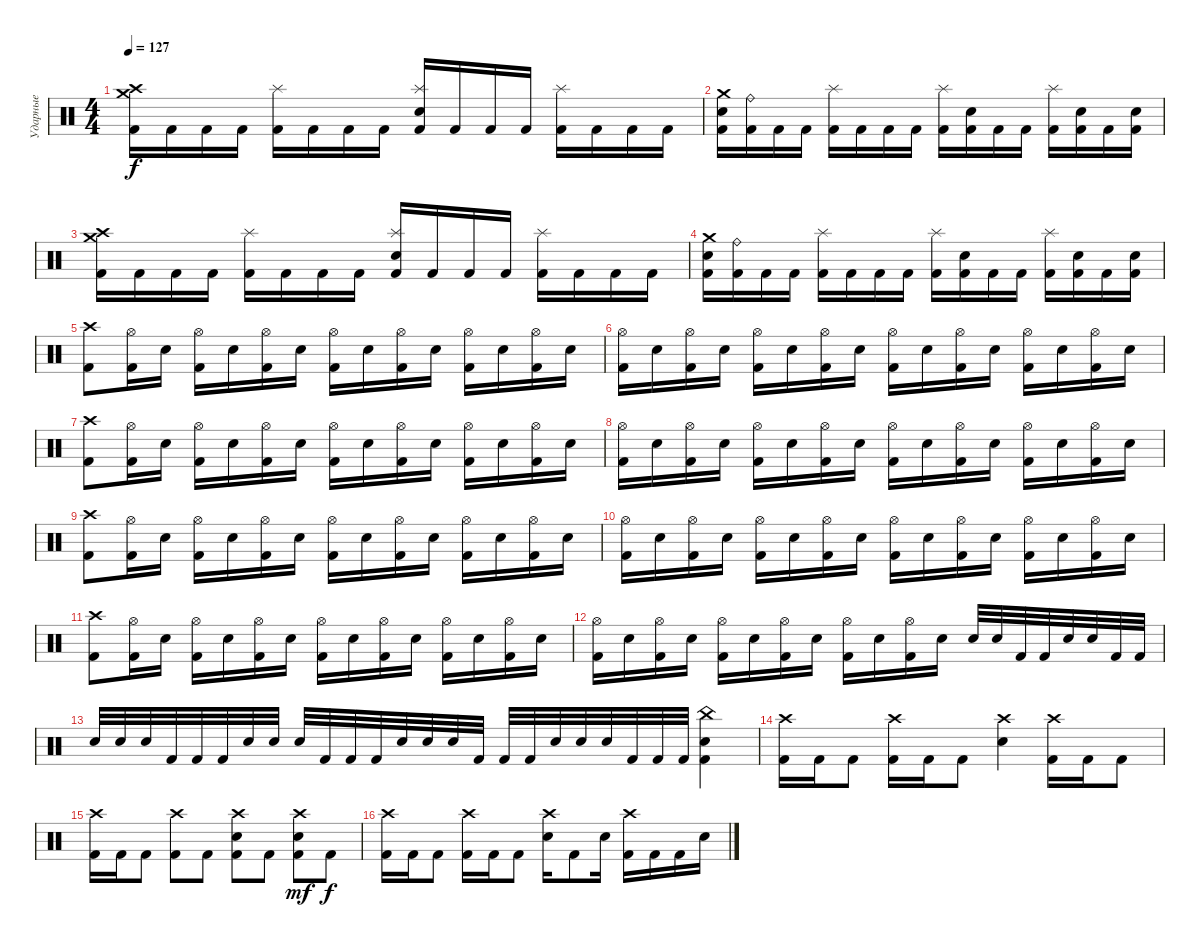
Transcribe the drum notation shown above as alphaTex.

\track ("Ударные" "Ударные") {instrument percussion bank 1}
\staff {score}
\articulation defaults
\ts (4 4)
\tempo 127
\clef neutral
\ks c
("Crash medium (hit)" "Crash high (hit)" "Kick (hit) 2").16{dy f} "Kick (hit) 2".16 "Kick (hit) 2".16 "Kick (hit) 2".16 ("Splash (hit)" "Kick (hit) 2").16 "Kick (hit) 2".16 "Kick (hit) 2".16 "Kick (hit) 2".16 ("Splash (hit)" "Electric Snare (hit)" "Kick (hit) 2").16 "Kick (hit) 2".16 "Kick (hit) 2".16 "Kick (hit) 2".16 ("Splash (hit)" "Kick (hit) 2").16 "Kick (hit) 2".16 "Kick (hit) 2".16 "Kick (hit) 2".16 |
("Crash medium (hit)" "Electric Snare (hit)" "Kick (hit) 2").16 ("Ride (bell)" "Kick (hit) 2").16 "Kick (hit) 2".16 "Kick (hit) 2".16 ("Splash (hit)" "Kick (hit) 2").16 "Kick (hit) 2".16 "Kick (hit) 2".16 "Kick (hit) 2".16 ("Splash (hit)" "Kick (hit) 2").16 ("Electric Snare (hit)" "Kick (hit) 2").16 "Kick (hit) 2".16 "Kick (hit) 2".16 ("Splash (hit)" "Kick (hit) 2").16 ("Electric Snare (hit)" "Kick (hit) 2").16 "Kick (hit) 2".16 ("Electric Snare (hit)" "Kick (hit) 2").16 |
("Crash medium (hit)" "Crash high (hit)" "Kick (hit) 2").16 "Kick (hit) 2".16 "Kick (hit) 2".16 "Kick (hit) 2".16 ("Splash (hit)" "Kick (hit) 2").16 "Kick (hit) 2".16 "Kick (hit) 2".16 "Kick (hit) 2".16 ("Splash (hit)" "Electric Snare (hit)" "Kick (hit) 2").16 "Kick (hit) 2".16 "Kick (hit) 2".16 "Kick (hit) 2".16 ("Splash (hit)" "Kick (hit) 2").16 "Kick (hit) 2".16 "Kick (hit) 2".16 "Kick (hit) 2".16 |
("Crash medium (hit)" "Electric Snare (hit)" "Kick (hit) 2").16 ("Ride (bell)" "Kick (hit) 2").16 "Kick (hit) 2".16 "Kick (hit) 2".16 ("Splash (hit)" "Kick (hit) 2").16 "Kick (hit) 2".16 "Kick (hit) 2".16 "Kick (hit) 2".16 ("Splash (hit)" "Kick (hit) 2").16 ("Electric Snare (hit)" "Kick (hit) 2").16 "Kick (hit) 2".16 "Kick (hit) 2".16 ("Splash (hit)" "Kick (hit) 2").16 ("Electric Snare (hit)" "Kick (hit) 2").16 "Kick (hit) 2".16 ("Electric Snare (hit)" "Kick (hit) 2").16 |
("Crash high (hit)" "Kick (hit) 2").8 ("Hi-Hat (open)" "Kick (hit) 2").16 "Electric Snare (hit)".16 ("Hi-Hat (open)" "Kick (hit) 2").16 "Electric Snare (hit)".16 ("Hi-Hat (open)" "Kick (hit) 2").16 "Electric Snare (hit)".16 ("Hi-Hat (open)" "Kick (hit) 2").16 "Electric Snare (hit)".16 ("Hi-Hat (open)" "Kick (hit) 2").16 "Electric Snare (hit)".16 ("Hi-Hat (open)" "Kick (hit) 2").16 "Electric Snare (hit)".16 ("Hi-Hat (open)" "Kick (hit) 2").16 "Electric Snare (hit)".16 |
("Hi-Hat (open)" "Kick (hit) 2").16 "Electric Snare (hit)".16 ("Hi-Hat (open)" "Kick (hit) 2").16 "Electric Snare (hit)".16 ("Hi-Hat (open)" "Kick (hit) 2").16 "Electric Snare (hit)".16 ("Hi-Hat (open)" "Kick (hit) 2").16 "Electric Snare (hit)".16 ("Hi-Hat (open)" "Kick (hit) 2").16 "Electric Snare (hit)".16 ("Hi-Hat (open)" "Kick (hit) 2").16 "Electric Snare (hit)".16 ("Hi-Hat (open)" "Kick (hit) 2").16 "Electric Snare (hit)".16 ("Hi-Hat (open)" "Kick (hit) 2").16 "Electric Snare (hit)".16 |
("Crash high (hit)" "Kick (hit) 2").8 ("Hi-Hat (open)" "Kick (hit) 2").16 "Electric Snare (hit)".16 ("Hi-Hat (open)" "Kick (hit) 2").16 "Electric Snare (hit)".16 ("Hi-Hat (open)" "Kick (hit) 2").16 "Electric Snare (hit)".16 ("Hi-Hat (open)" "Kick (hit) 2").16 "Electric Snare (hit)".16 ("Hi-Hat (open)" "Kick (hit) 2").16 "Electric Snare (hit)".16 ("Hi-Hat (open)" "Kick (hit) 2").16 "Electric Snare (hit)".16 ("Hi-Hat (open)" "Kick (hit) 2").16 "Electric Snare (hit)".16 |
("Hi-Hat (open)" "Kick (hit) 2").16 "Electric Snare (hit)".16 ("Hi-Hat (open)" "Kick (hit) 2").16 "Electric Snare (hit)".16 ("Hi-Hat (open)" "Kick (hit) 2").16 "Electric Snare (hit)".16 ("Hi-Hat (open)" "Kick (hit) 2").16 "Electric Snare (hit)".16 ("Hi-Hat (open)" "Kick (hit) 2").16 "Electric Snare (hit)".16 ("Hi-Hat (open)" "Kick (hit) 2").16 "Electric Snare (hit)".16 ("Hi-Hat (open)" "Kick (hit) 2").16 "Electric Snare (hit)".16 ("Hi-Hat (open)" "Kick (hit) 2").16 "Electric Snare (hit)".16 |
("Crash high (hit)" "Kick (hit) 2").8 ("Hi-Hat (open)" "Kick (hit) 2").16 "Electric Snare (hit)".16 ("Hi-Hat (open)" "Kick (hit) 2").16 "Electric Snare (hit)".16 ("Hi-Hat (open)" "Kick (hit) 2").16 "Electric Snare (hit)".16 ("Hi-Hat (open)" "Kick (hit) 2").16 "Electric Snare (hit)".16 ("Hi-Hat (open)" "Kick (hit) 2").16 "Electric Snare (hit)".16 ("Hi-Hat (open)" "Kick (hit) 2").16 "Electric Snare (hit)".16 ("Hi-Hat (open)" "Kick (hit) 2").16 "Electric Snare (hit)".16 |
("Hi-Hat (open)" "Kick (hit) 2").16 "Electric Snare (hit)".16 ("Hi-Hat (open)" "Kick (hit) 2").16 "Electric Snare (hit)".16 ("Hi-Hat (open)" "Kick (hit) 2").16 "Electric Snare (hit)".16 ("Hi-Hat (open)" "Kick (hit) 2").16 "Electric Snare (hit)".16 ("Hi-Hat (open)" "Kick (hit) 2").16 "Electric Snare (hit)".16 ("Hi-Hat (open)" "Kick (hit) 2").16 "Electric Snare (hit)".16 ("Hi-Hat (open)" "Kick (hit) 2").16 "Electric Snare (hit)".16 ("Hi-Hat (open)" "Kick (hit) 2").16 "Electric Snare (hit)".16 |
("Crash high (hit)" "Kick (hit) 2").8 ("Hi-Hat (open)" "Kick (hit) 2").16 "Electric Snare (hit)".16 ("Hi-Hat (open)" "Kick (hit) 2").16 "Electric Snare (hit)".16 ("Hi-Hat (open)" "Kick (hit) 2").16 "Electric Snare (hit)".16 ("Hi-Hat (open)" "Kick (hit) 2").16 "Electric Snare (hit)".16 ("Hi-Hat (open)" "Kick (hit) 2").16 "Electric Snare (hit)".16 ("Hi-Hat (open)" "Kick (hit) 2").16 "Electric Snare (hit)".16 ("Hi-Hat (open)" "Kick (hit) 2").16 "Electric Snare (hit)".16 |
("Hi-Hat (open)" "Kick (hit) 2").16 "Electric Snare (hit)".16 ("Hi-Hat (open)" "Kick (hit) 2").16 "Electric Snare (hit)".16 ("Hi-Hat (open)" "Kick (hit) 2").16 "Electric Snare (hit)".16 ("Hi-Hat (open)" "Kick (hit) 2").16 "Electric Snare (hit)".16 ("Hi-Hat (open)" "Kick (hit) 2").16 "Electric Snare (hit)".16 ("Hi-Hat (open)" "Kick (hit) 2").16 "Electric Snare (hit)".16 "Electric Snare (hit)".32 "Electric Snare (hit)".32 "Kick (hit) 2".32 "Kick (hit) 2".32 "Electric Snare (hit)".32 "Electric Snare (hit)".32 "Kick (hit) 2".32 "Kick (hit) 2".32 |
"Electric Snare (hit)".32 "Electric Snare (hit)".32 "Electric Snare (hit)".32 "Kick (hit) 2".32 "Kick (hit) 2".32 "Kick (hit) 2".32 "Electric Snare (hit)".32 "Electric Snare (hit)".32 "Electric Snare (hit)".32 "Kick (hit) 2".32 "Kick (hit) 2".32 "Kick (hit) 2".32 "Electric Snare (hit)".32 "Electric Snare (hit)".32 "Electric Snare (hit)".32 "Kick (hit) 2".32 "Kick (hit) 2".32 "Kick (hit) 2".32 "Electric Snare (hit)".32 "Electric Snare (hit)".32 "Electric Snare (hit)".32 "Kick (hit) 2".32 "Kick (hit) 2".32 "Kick (hit) 2".32 ("China (hit)" "Electric Snare (hit)" "Kick (hit) 2").4 |
("Crash high (hit)" "Kick (hit) 2").16 "Kick (hit) 2".16 "Kick (hit) 2".8 ("Crash high (hit)" "Kick (hit) 2").16 "Kick (hit) 2".16 "Kick (hit) 2".8 ("Crash high (hit)" "Electric Snare (hit)").4 ("Crash high (hit)" "Kick (hit) 2").16 "Kick (hit) 2".16 "Kick (hit) 2".8 |
("Crash high (hit)" "Kick (hit) 2").16 "Kick (hit) 2".16 "Kick (hit) 2".8 ("Crash high (hit)" "Kick (hit) 2").8 "Kick (hit) 2".8 ("Crash high (hit)" "Electric Snare (hit)" "Kick (hit) 2").8 "Kick (hit) 2".8 ("Crash high (hit)" "Electric Snare (hit)" "Kick (hit) 2").8{dy mf} "Kick (hit) 2".8{dy f} |
("Crash high (hit)" "Kick (hit) 2").16 "Kick (hit) 2".16 "Kick (hit) 2".8 ("Crash high (hit)" "Kick (hit) 2").16 "Kick (hit) 2".16 "Kick (hit) 2".8 ("Crash high (hit)" "Electric Snare (hit)").16 "Kick (hit) 2".8 "Electric Snare (hit)".16 ("Crash high (hit)" "Kick (hit) 2").16 "Kick (hit) 2".16 "Kick (hit) 2".16 "Electric Snare (hit)".16
